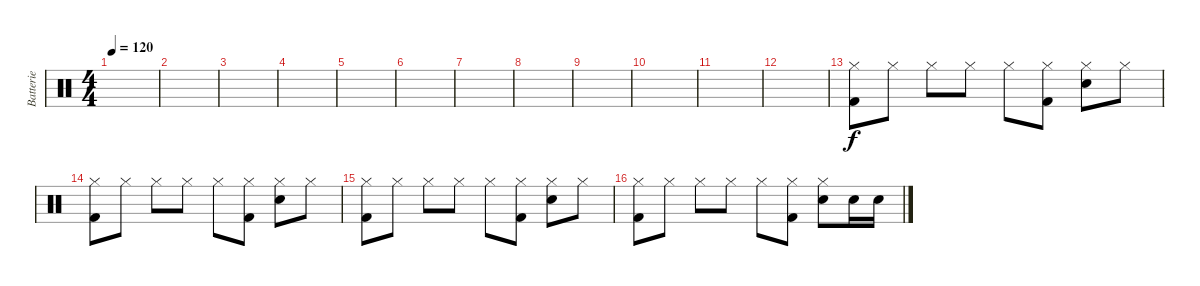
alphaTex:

\track ("Batterie" "Batterie") {instrument percussion}
\staff {score}
\articulation defaults
\ts (4 4)
\tempo 120
\clef neutral
\ks c
|
|
|
|
|
|
|
|
|
|
|
|
("Hi-Hat (closed)" "Kick (hit) 2").8 "Hi-Hat (closed)".8 "Hi-Hat (closed)".8 "Hi-Hat (closed)".8 "Hi-Hat (closed)".8 ("Hi-Hat (closed)" "Kick (hit) 2").8 ("Hi-Hat (closed)" "Snare (hit) 2").8 "Hi-Hat (closed)".8 |
("Hi-Hat (closed)" "Kick (hit) 2").8 "Hi-Hat (closed)".8 "Hi-Hat (closed)".8 "Hi-Hat (closed)".8 "Hi-Hat (closed)".8 ("Hi-Hat (closed)" "Kick (hit) 2").8 ("Hi-Hat (closed)" "Snare (hit) 2").8 "Hi-Hat (closed)".8 |
("Hi-Hat (closed)" "Kick (hit) 2").8 "Hi-Hat (closed)".8 "Hi-Hat (closed)".8 "Hi-Hat (closed)".8 "Hi-Hat (closed)".8 ("Hi-Hat (closed)" "Kick (hit) 2").8 ("Hi-Hat (closed)" "Snare (hit) 2").8 "Hi-Hat (closed)".8 |
("Hi-Hat (closed)" "Kick (hit) 2").8 "Hi-Hat (closed)".8 "Hi-Hat (closed)".8 "Hi-Hat (closed)".8 "Hi-Hat (closed)".8 ("Hi-Hat (closed)" "Kick (hit) 2").8 ("Hi-Hat (closed)" "Snare (hit) 2").8 "Snare (hit) 2".16 "Snare (hit) 2".16
